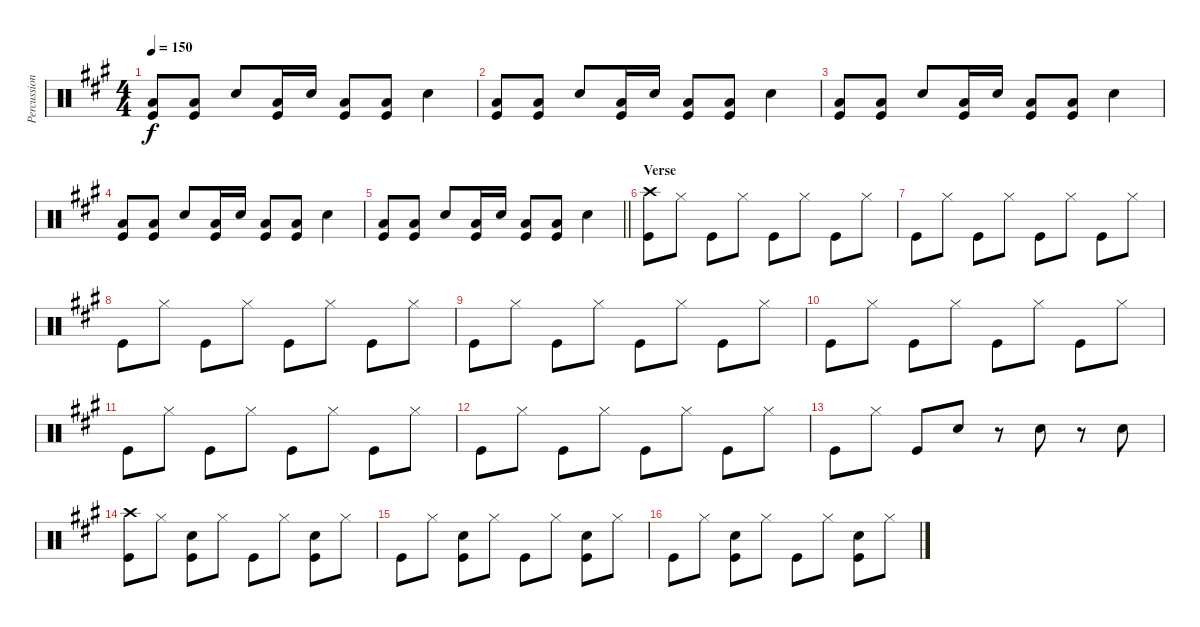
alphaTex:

\track ("Percussion" "Percussion") {instrument percussion}
\staff {score}
\articulation defaults
\ts (4 4)
\tempo 150
\clef neutral
\ks a
("Kick (hit)" "Low Tom (hit)").8{dy f} ("Kick (hit)" "Low Tom (hit)").8 "Snare (hit) 2".8 ("Kick (hit)" "Low Tom (hit)").16 "Snare (hit) 2".16 ("Kick (hit)" "Low Tom (hit)").8 ("Kick (hit)" "Low Tom (hit)").8 "Snare (hit) 2".4 |
("Kick (hit)" "Low Tom (hit)").8 ("Kick (hit)" "Low Tom (hit)").8 "Snare (hit) 2".8 ("Kick (hit)" "Low Tom (hit)").16 "Snare (hit) 2".16 ("Kick (hit)" "Low Tom (hit)").8 ("Kick (hit)" "Low Tom (hit)").8 "Snare (hit) 2".4 |
("Kick (hit)" "Low Tom (hit)").8 ("Kick (hit)" "Low Tom (hit)").8 "Snare (hit) 2".8 ("Kick (hit)" "Low Tom (hit)").16 "Snare (hit) 2".16 ("Kick (hit)" "Low Tom (hit)").8 ("Kick (hit)" "Low Tom (hit)").8 "Snare (hit) 2".4 |
("Kick (hit)" "Low Tom (hit)").8 ("Kick (hit)" "Low Tom (hit)").8 "Snare (hit) 2".8 ("Kick (hit)" "Low Tom (hit)").16 "Snare (hit) 2".16 ("Kick (hit)" "Low Tom (hit)").8 ("Kick (hit)" "Low Tom (hit)").8 "Snare (hit) 2".4 |
\barLineRight lightlight
("Kick (hit)" "Low Tom (hit)").8 ("Kick (hit)" "Low Tom (hit)").8 "Snare (hit) 2".8 ("Kick (hit)" "Low Tom (hit)").16 "Snare (hit) 2".16 ("Kick (hit)" "Low Tom (hit)").8 ("Kick (hit)" "Low Tom (hit)").8 "Snare (hit) 2".4 |
\section ("" "Verse")
("Kick (hit)" "Crash high (hit)").8 "Hi-Hat (closed)".8 "Kick (hit)".8 "Hi-Hat (closed)".8 "Kick (hit)".8 "Hi-Hat (closed)".8 "Kick (hit)".8 "Hi-Hat (closed)".8 |
"Kick (hit)".8 "Hi-Hat (closed)".8 "Kick (hit)".8 "Hi-Hat (closed)".8 "Kick (hit)".8 "Hi-Hat (closed)".8 "Kick (hit)".8 "Hi-Hat (closed)".8 |
"Kick (hit)".8 "Hi-Hat (closed)".8 "Kick (hit)".8 "Hi-Hat (closed)".8 "Kick (hit)".8 "Hi-Hat (closed)".8 "Kick (hit)".8 "Hi-Hat (closed)".8 |
"Kick (hit)".8 "Hi-Hat (closed)".8 "Kick (hit)".8 "Hi-Hat (closed)".8 "Kick (hit)".8 "Hi-Hat (closed)".8 "Kick (hit)".8 "Hi-Hat (closed)".8 |
"Kick (hit)".8 "Hi-Hat (closed)".8 "Kick (hit)".8 "Hi-Hat (closed)".8 "Kick (hit)".8 "Hi-Hat (closed)".8 "Kick (hit)".8 "Hi-Hat (closed)".8 |
"Kick (hit)".8 "Hi-Hat (closed)".8 "Kick (hit)".8 "Hi-Hat (closed)".8 "Kick (hit)".8 "Hi-Hat (closed)".8 "Kick (hit)".8 "Hi-Hat (closed)".8 |
"Kick (hit)".8 "Hi-Hat (closed)".8 "Kick (hit)".8 "Hi-Hat (closed)".8 "Kick (hit)".8 "Hi-Hat (closed)".8 "Kick (hit)".8 "Hi-Hat (closed)".8 |
"Kick (hit)".8 "Hi-Hat (closed)".8 "Kick (hit)".8 "Snare (hit) 2".8 r.8 "Snare (hit) 2".8 r.8 "Snare (hit) 2".8 |
("Kick (hit)" "Crash high (hit)").8 "Hi-Hat (closed)".8 ("Kick (hit)" "Snare (hit) 2").8 "Hi-Hat (closed)".8 "Kick (hit)".8 "Hi-Hat (closed)".8 ("Snare (hit) 2" "Kick (hit)").8 "Hi-Hat (closed)".8 |
"Kick (hit)".8 "Hi-Hat (closed)".8 ("Kick (hit)" "Snare (hit) 2").8 "Hi-Hat (closed)".8 "Kick (hit)".8 "Hi-Hat (closed)".8 ("Kick (hit)" "Snare (hit) 2").8 "Hi-Hat (closed)".8 |
"Kick (hit)".8 "Hi-Hat (closed)".8 ("Kick (hit)" "Snare (hit) 2").8 "Hi-Hat (closed)".8 "Kick (hit)".8 "Hi-Hat (closed)".8 ("Kick (hit)" "Snare (hit) 2").8 "Hi-Hat (closed)".8
